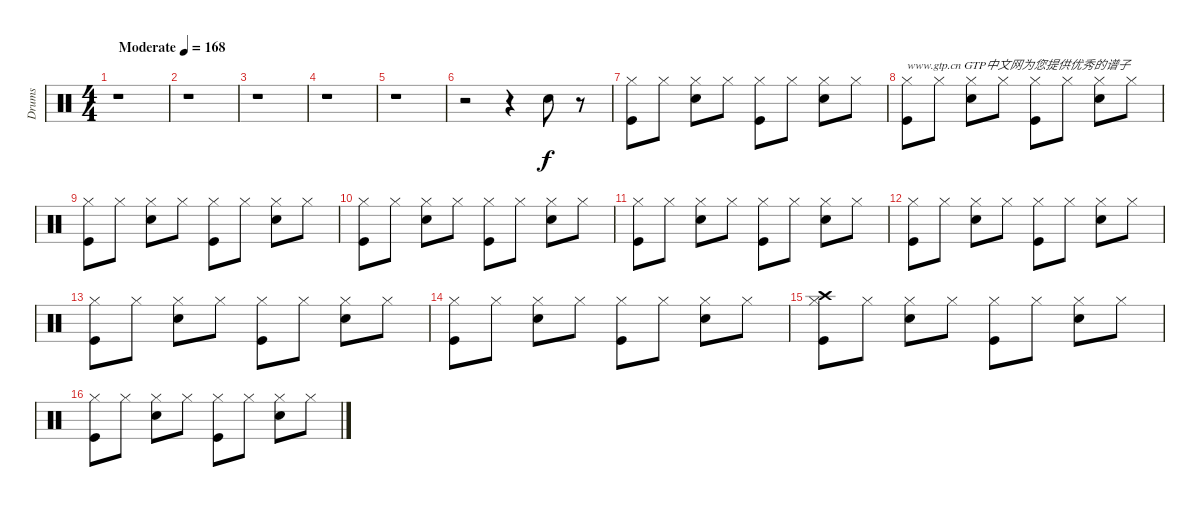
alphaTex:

\track ("Drums" "Drums") {instrument percussion}
\staff {score}
\articulation defaults
\ts (4 4)
\tempo (168 "Moderate")
\clef neutral
\ks c
r.1{dy f} |
r.1 |
r.1 |
r.1 |
r.1 |
r.2 r.4 "Snare (hit) 2".8 r.8 |
("Kick (hit)" "Hi-Hat (closed)").8 "Hi-Hat (closed)".8 ("Snare (hit) 2" "Hi-Hat (closed)").8 "Hi-Hat (closed)".8 ("Kick (hit)" "Hi-Hat (closed)").8 "Hi-Hat (closed)".8 ("Snare (hit) 2" "Hi-Hat (closed)").8 "Hi-Hat (closed)".8 |
("Kick (hit)" "Hi-Hat (closed)").8{txt "www.gtp.cn GTP中文网为您提供优秀的谱子"} "Hi-Hat (closed)".8 ("Snare (hit) 2" "Hi-Hat (closed)").8 "Hi-Hat (closed)".8 ("Kick (hit)" "Hi-Hat (closed)").8 "Hi-Hat (closed)".8 ("Snare (hit) 2" "Hi-Hat (closed)").8 "Hi-Hat (closed)".8 |
("Kick (hit)" "Hi-Hat (closed)").8 "Hi-Hat (closed)".8 ("Snare (hit) 2" "Hi-Hat (closed)").8 "Hi-Hat (closed)".8 ("Kick (hit)" "Hi-Hat (closed)").8 "Hi-Hat (closed)".8 ("Snare (hit) 2" "Hi-Hat (closed)").8 "Hi-Hat (closed)".8 |
("Kick (hit)" "Hi-Hat (closed)").8 "Hi-Hat (closed)".8 ("Snare (hit) 2" "Hi-Hat (closed)").8 "Hi-Hat (closed)".8 ("Kick (hit)" "Hi-Hat (closed)").8 "Hi-Hat (closed)".8 ("Snare (hit) 2" "Hi-Hat (closed)").8 "Hi-Hat (closed)".8 |
("Kick (hit)" "Hi-Hat (closed)").8 "Hi-Hat (closed)".8 ("Snare (hit) 2" "Hi-Hat (closed)").8 "Hi-Hat (closed)".8 ("Kick (hit)" "Hi-Hat (closed)").8 "Hi-Hat (closed)".8 ("Snare (hit) 2" "Hi-Hat (closed)").8 "Hi-Hat (closed)".8 |
("Kick (hit)" "Hi-Hat (closed)").8 "Hi-Hat (closed)".8 ("Snare (hit) 2" "Hi-Hat (closed)").8 "Hi-Hat (closed)".8 ("Kick (hit)" "Hi-Hat (closed)").8 "Hi-Hat (closed)".8 ("Snare (hit) 2" "Hi-Hat (closed)").8 "Hi-Hat (closed)".8 |
("Kick (hit)" "Hi-Hat (closed)").8 "Hi-Hat (closed)".8 ("Snare (hit) 2" "Hi-Hat (closed)").8 "Hi-Hat (closed)".8 ("Kick (hit)" "Hi-Hat (closed)").8 "Hi-Hat (closed)".8 ("Snare (hit) 2" "Hi-Hat (closed)").8 "Hi-Hat (closed)".8 |
("Kick (hit)" "Hi-Hat (closed)").8 "Hi-Hat (closed)".8 ("Snare (hit) 2" "Hi-Hat (closed)").8 "Hi-Hat (closed)".8 ("Kick (hit)" "Hi-Hat (closed)").8 "Hi-Hat (closed)".8 ("Snare (hit) 2" "Hi-Hat (closed)").8 "Hi-Hat (closed)".8 |
("Kick (hit)" "Hi-Hat (closed)" "Crash high (hit)").8 "Hi-Hat (closed)".8 ("Snare (hit) 2" "Hi-Hat (closed)").8 "Hi-Hat (closed)".8 ("Kick (hit)" "Hi-Hat (closed)").8 "Hi-Hat (closed)".8 ("Snare (hit) 2" "Hi-Hat (closed)").8 "Hi-Hat (closed)".8 |
("Kick (hit)" "Hi-Hat (closed)").8 "Hi-Hat (closed)".8 ("Snare (hit) 2" "Hi-Hat (closed)").8 "Hi-Hat (closed)".8 ("Kick (hit)" "Hi-Hat (closed)").8 "Hi-Hat (closed)".8 ("Snare (hit) 2" "Hi-Hat (closed)").8 "Hi-Hat (closed)".8
